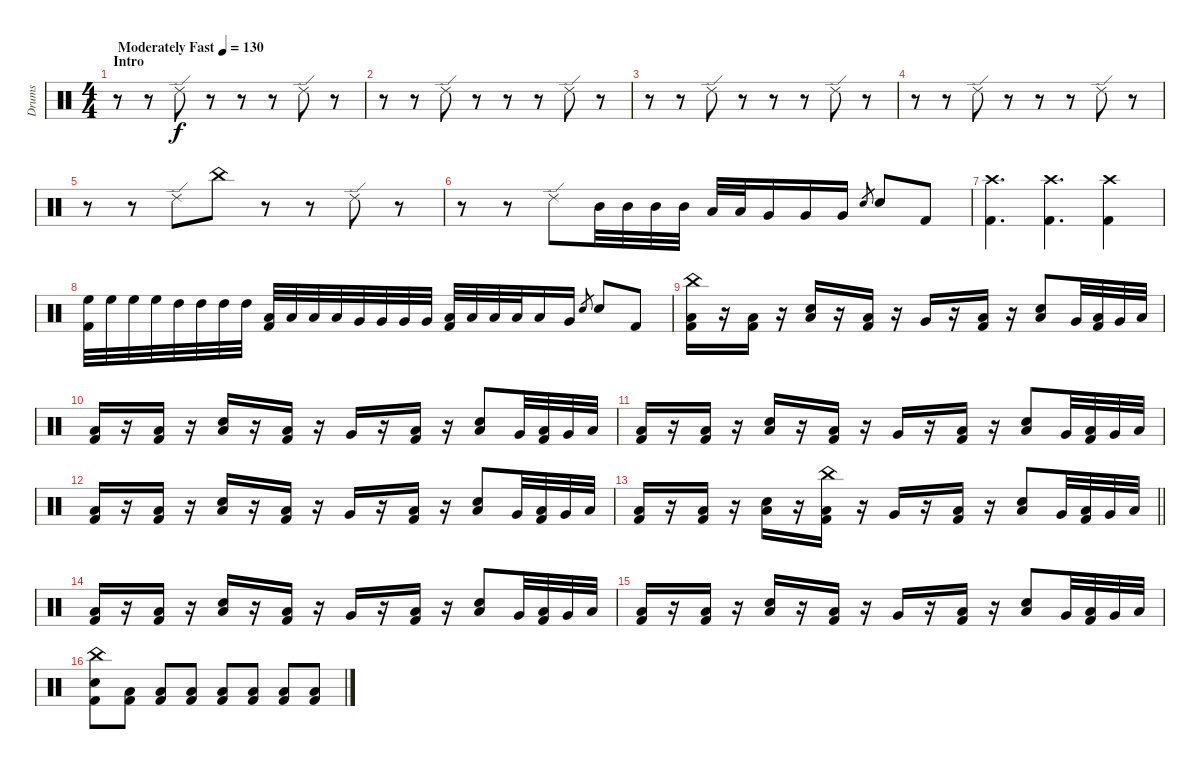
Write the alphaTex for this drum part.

\track ("Drums" "Drums") {instrument percussion}
\staff {score}
\articulation defaults
\ts (4 4)
\section ("" "Intro")
\tempo (130 "Moderately Fast")
\clef neutral
\ks c
r.8{dy f balance 13} r.8 "Ride (edge) 2".8 r.8 r.8 r.8 "Ride (edge) 2".8 r.8 |
r.8 r.8 "Ride (edge) 2".8 r.8 r.8 r.8 "Ride (edge) 2".8 r.8 |
r.8 r.8 "Ride (edge) 2".8 r.8 r.8 r.8 "Ride (edge) 2".8 r.8 |
r.8 r.8 "Ride (edge) 2".8 r.8 r.8 r.8 "Ride (edge) 2".8 r.8 |
r.8 r.8 "Ride (edge) 2".8 "China (hit)".8 r.8 r.8 "Ride (edge) 2".8 r.8 |
r.8 r.8 "Ride (edge) 2".8 "Mid Tom (hit)".32{volume 14 balance 8} "Mid Tom (hit)".32 "Mid Tom (hit)".32 "Mid Tom (hit)".32 "Low Tom (hit)".32 "Low Tom (hit)".32 "Very Low Tom (hit)".16 "Very Low Tom (hit)".16 "Very Low Tom (hit)".16 "Snare (hit) 2".8{gr} "Snare (hit) 2".8 "Kick (hit) 2".8 |
("Crash high (hit)" "Kick (hit) 2").4{d} ("Crash high (hit)" "Kick (hit) 2").4{d} ("Crash high (hit)" "Kick (hit) 2").4 |
("High Floor Tom (hit)" "Kick (hit) 2").32 "High Floor Tom (hit)".32 "High Floor Tom (hit)".32 "High Floor Tom (hit)".32 "High Tom (hit)".32 "High Tom (hit)".32 "High Tom (hit)".32 "High Tom (hit)".32 ("Low Tom (hit)" "Kick (hit) 2").32 "Low Tom (hit)".32 "Low Tom (hit)".32 "Low Tom (hit)".32 "Very Low Tom (hit)".32 "Very Low Tom (hit)".32 "Very Low Tom (hit)".32 "Very Low Tom (hit)".32 ("Low Floor Tom (hit)" "Kick (hit) 2").32 "Low Floor Tom (hit)".32 "Low Floor Tom (hit)".32 "Low Floor Tom (hit)".32 "Low Floor Tom (hit)".16 "Very Low Tom (hit)".16 "Snare (hit) 2".8{gr} "Snare (hit) 2".8 "Kick (hit) 2".8 |
("China (hit)" "Low Floor Tom (hit)" "Kick (hit) 2").16 r.16 ("Low Floor Tom (hit)" "Kick (hit) 2").16 r.16 ("Low Floor Tom (hit)" "Snare (hit) 2").16 r.16 ("Low Floor Tom (hit)" "Kick (hit) 2").16 r.16 "Very Low Tom (hit)".16 r.16 ("Low Floor Tom (hit)" "Kick (hit) 2").16 r.16 ("Low Floor Tom (hit)" "Snare (hit) 2").8 "Very Low Tom (hit)".32 ("Low Floor Tom (hit)" "Kick (hit) 2").32 "Very Low Tom (hit)".32 "Low Floor Tom (hit)".32 |
("Low Floor Tom (hit)" "Kick (hit) 2").16 r.16 ("Low Floor Tom (hit)" "Kick (hit) 2").16 r.16 ("Low Floor Tom (hit)" "Snare (hit) 2").16 r.16 ("Low Floor Tom (hit)" "Kick (hit) 2").16 r.16 "Very Low Tom (hit)".16 r.16 ("Low Floor Tom (hit)" "Kick (hit) 2").16 r.16 ("Low Floor Tom (hit)" "Snare (hit) 2").8 "Very Low Tom (hit)".32 ("Low Floor Tom (hit)" "Kick (hit) 2").32 "Very Low Tom (hit)".32 "Low Floor Tom (hit)".32 |
("Low Floor Tom (hit)" "Kick (hit) 2").16 r.16 ("Low Floor Tom (hit)" "Kick (hit) 2").16 r.16 ("Low Floor Tom (hit)" "Snare (hit) 2").16 r.16 ("Low Floor Tom (hit)" "Kick (hit) 2").16 r.16 "Very Low Tom (hit)".16 r.16 ("Low Floor Tom (hit)" "Kick (hit) 2").16 r.16 ("Low Floor Tom (hit)" "Snare (hit) 2").8 "Very Low Tom (hit)".32 ("Low Floor Tom (hit)" "Kick (hit) 2").32 "Very Low Tom (hit)".32 "Low Floor Tom (hit)".32 |
("Low Floor Tom (hit)" "Kick (hit) 2").16 r.16 ("Low Floor Tom (hit)" "Kick (hit) 2").16 r.16 ("Low Floor Tom (hit)" "Snare (hit) 2").16 r.16 ("Low Floor Tom (hit)" "Kick (hit) 2").16 r.16 "Very Low Tom (hit)".16 r.16 ("Low Floor Tom (hit)" "Kick (hit) 2").16 r.16 ("Low Floor Tom (hit)" "Snare (hit) 2").8 "Very Low Tom (hit)".32 ("Low Floor Tom (hit)" "Kick (hit) 2").32 "Very Low Tom (hit)".32 "Low Floor Tom (hit)".32 |
\barLineRight lightlight
("Low Floor Tom (hit)" "Kick (hit) 2").16 r.16 ("Low Floor Tom (hit)" "Kick (hit) 2").16 r.16 ("Low Floor Tom (hit)" "Snare (hit) 2").16 r.16 ("China (hit)" "Low Floor Tom (hit)" "Kick (hit) 2").16 r.16 "Very Low Tom (hit)".16 r.16 ("Low Floor Tom (hit)" "Kick (hit) 2").16 r.16 ("Low Floor Tom (hit)" "Snare (hit) 2").8 "Very Low Tom (hit)".32 ("Low Floor Tom (hit)" "Kick (hit) 2").32 "Very Low Tom (hit)".32 "Low Floor Tom (hit)".32 |
("Low Floor Tom (hit)" "Kick (hit) 2").16 r.16 ("Low Floor Tom (hit)" "Kick (hit) 2").16 r.16 ("Low Floor Tom (hit)" "Snare (hit) 2").16 r.16 ("Low Floor Tom (hit)" "Kick (hit) 2").16 r.16 "Very Low Tom (hit)".16 r.16 ("Low Floor Tom (hit)" "Kick (hit) 2").16 r.16 ("Low Floor Tom (hit)" "Snare (hit) 2").8 "Very Low Tom (hit)".32 ("Low Floor Tom (hit)" "Kick (hit) 2").32 "Very Low Tom (hit)".32 "Low Floor Tom (hit)".32 |
("Low Floor Tom (hit)" "Kick (hit) 2").16 r.16 ("Low Floor Tom (hit)" "Kick (hit) 2").16 r.16 ("Low Floor Tom (hit)" "Snare (hit) 2").16 r.16 ("Low Floor Tom (hit)" "Kick (hit) 2").16 r.16 "Very Low Tom (hit)".16 r.16 ("Low Floor Tom (hit)" "Kick (hit) 2").16 r.16 ("Low Floor Tom (hit)" "Snare (hit) 2").8 "Very Low Tom (hit)".32 ("Low Floor Tom (hit)" "Kick (hit) 2").32 "Very Low Tom (hit)".32 "Low Floor Tom (hit)".32 |
("China (hit)" "Snare (hit) 2" "Kick (hit) 2").8 ("Low Floor Tom (hit)" "Kick (hit) 2").8 ("Low Floor Tom (hit)" "Kick (hit) 2").8 ("Low Floor Tom (hit)" "Kick (hit) 2").8 ("Low Floor Tom (hit)" "Kick (hit) 2").8 ("Low Floor Tom (hit)" "Kick (hit) 2").8 ("Low Floor Tom (hit)" "Kick (hit) 2").8 ("Low Floor Tom (hit)" "Kick (hit) 2").8
